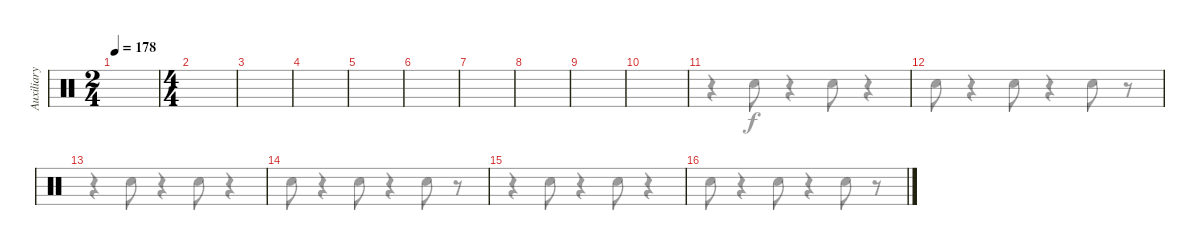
\track ("Auxiliary Percussion" "Auxiliary ") {instrument percussion}
\staff {score}
\articulation defaults
\voice
\ts (2 4)
\tempo 178
\clef neutral
\ks c
|
\ts (4 4)
|
|
|
|
|
|
|
|
|
|
|
|
|
|
\voice
\clef neutral
\ks c
|
|
|
|
|
|
|
|
|
|
r.4 "Hand Clap (hit)".8 r.4 "Hand Clap (hit)".8 r.4 |
"Hand Clap (hit)".8 r.4 "Hand Clap (hit)".8 r.4 "Hand Clap (hit)".8 r.8 |
r.4 "Hand Clap (hit)".8 r.4 "Hand Clap (hit)".8 r.4 |
"Hand Clap (hit)".8 r.4 "Hand Clap (hit)".8 r.4 "Hand Clap (hit)".8 r.8 |
r.4 "Hand Clap (hit)".8 r.4 "Hand Clap (hit)".8 r.4 |
"Hand Clap (hit)".8 r.4 "Hand Clap (hit)".8 r.4 "Hand Clap (hit)".8 r.8
